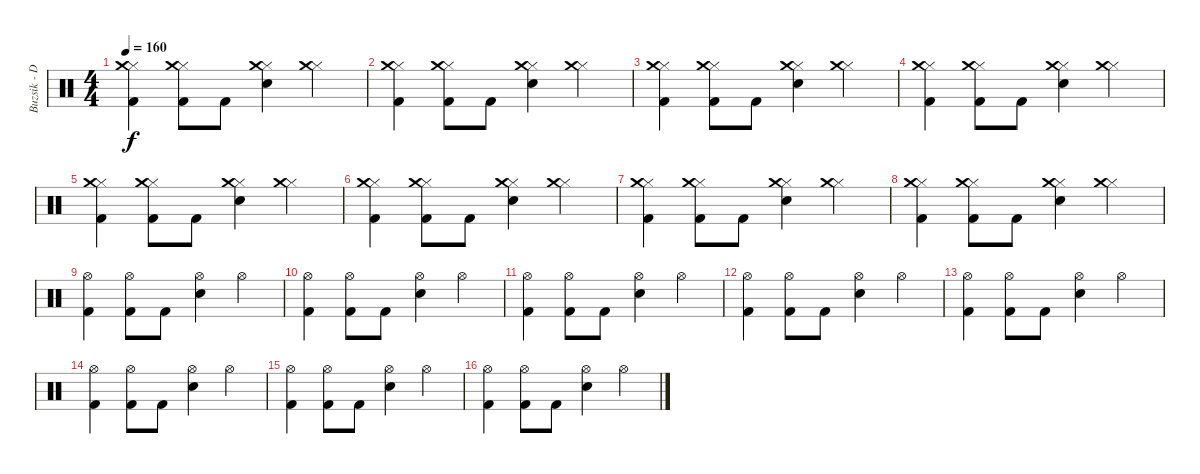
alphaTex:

\track ("Buzsik - Dob" "Buzsik - D") {instrument percussion}
\staff {score}
\articulation defaults
\ts (4 4)
\tempo 160
\clef neutral
\ks c
("Hi-Hat (closed)" "Crash medium (hit)" "Kick (hit) 2").4{dy f} ("Hi-Hat (closed)" "Crash medium (hit)" "Kick (hit) 2").8 "Kick (hit) 2".8 ("Hi-Hat (closed)" "Crash medium (hit)" "Electric Snare (hit)").4 ("Hi-Hat (closed)" "Crash medium (hit)").4 |
("Hi-Hat (closed)" "Crash medium (hit)" "Kick (hit) 2").4 ("Hi-Hat (closed)" "Crash medium (hit)" "Kick (hit) 2").8 "Kick (hit) 2".8 ("Hi-Hat (closed)" "Crash medium (hit)" "Electric Snare (hit)").4 ("Hi-Hat (closed)" "Crash medium (hit)").4 |
("Hi-Hat (closed)" "Crash medium (hit)" "Kick (hit) 2").4 ("Hi-Hat (closed)" "Crash medium (hit)" "Kick (hit) 2").8 "Kick (hit) 2".8 ("Hi-Hat (closed)" "Crash medium (hit)" "Electric Snare (hit)").4 ("Hi-Hat (closed)" "Crash medium (hit)").4 |
("Hi-Hat (closed)" "Crash medium (hit)" "Kick (hit) 2").4 ("Hi-Hat (closed)" "Crash medium (hit)" "Kick (hit) 2").8 "Kick (hit) 2".8 ("Hi-Hat (closed)" "Crash medium (hit)" "Electric Snare (hit)").4 ("Hi-Hat (closed)" "Crash medium (hit)").4 |
("Hi-Hat (closed)" "Crash medium (hit)" "Kick (hit) 2").4 ("Hi-Hat (closed)" "Crash medium (hit)" "Kick (hit) 2").8 "Kick (hit) 2".8 ("Hi-Hat (closed)" "Crash medium (hit)" "Electric Snare (hit)").4 ("Hi-Hat (closed)" "Crash medium (hit)").4 |
("Hi-Hat (closed)" "Crash medium (hit)" "Kick (hit) 2").4 ("Hi-Hat (closed)" "Crash medium (hit)" "Kick (hit) 2").8 "Kick (hit) 2".8 ("Hi-Hat (closed)" "Crash medium (hit)" "Electric Snare (hit)").4 ("Hi-Hat (closed)" "Crash medium (hit)").4 |
("Hi-Hat (closed)" "Crash medium (hit)" "Kick (hit) 2").4 ("Hi-Hat (closed)" "Crash medium (hit)" "Kick (hit) 2").8 "Kick (hit) 2".8 ("Hi-Hat (closed)" "Crash medium (hit)" "Electric Snare (hit)").4 ("Hi-Hat (closed)" "Crash medium (hit)").4 |
("Hi-Hat (closed)" "Crash medium (hit)" "Kick (hit) 2").4 ("Hi-Hat (closed)" "Crash medium (hit)" "Kick (hit) 2").8 "Kick (hit) 2".8 ("Hi-Hat (closed)" "Crash medium (hit)" "Electric Snare (hit)").4 ("Hi-Hat (closed)" "Crash medium (hit)").4 |
("Hi-Hat (open)" "Kick (hit) 2").4 ("Hi-Hat (open)" "Kick (hit) 2").8 "Kick (hit) 2".8 ("Hi-Hat (open)" "Electric Snare (hit)").4 "Hi-Hat (open)".4 |
("Hi-Hat (open)" "Kick (hit) 2").4 ("Hi-Hat (open)" "Kick (hit) 2").8 "Kick (hit) 2".8 ("Hi-Hat (open)" "Electric Snare (hit)").4 "Hi-Hat (open)".4 |
("Hi-Hat (open)" "Kick (hit) 2").4 ("Hi-Hat (open)" "Kick (hit) 2").8 "Kick (hit) 2".8 ("Hi-Hat (open)" "Electric Snare (hit)").4 "Hi-Hat (open)".4 |
("Hi-Hat (open)" "Kick (hit) 2").4 ("Hi-Hat (open)" "Kick (hit) 2").8 "Kick (hit) 2".8 ("Hi-Hat (open)" "Electric Snare (hit)").4 "Hi-Hat (open)".4 |
("Hi-Hat (open)" "Kick (hit) 2").4 ("Hi-Hat (open)" "Kick (hit) 2").8 "Kick (hit) 2".8 ("Hi-Hat (open)" "Electric Snare (hit)").4 "Hi-Hat (open)".4 |
("Hi-Hat (open)" "Kick (hit) 2").4 ("Hi-Hat (open)" "Kick (hit) 2").8 "Kick (hit) 2".8 ("Hi-Hat (open)" "Electric Snare (hit)").4 "Hi-Hat (open)".4 |
("Hi-Hat (open)" "Kick (hit) 2").4 ("Hi-Hat (open)" "Kick (hit) 2").8 "Kick (hit) 2".8 ("Hi-Hat (open)" "Electric Snare (hit)").4 "Hi-Hat (open)".4 |
("Hi-Hat (open)" "Kick (hit) 2").4 ("Hi-Hat (open)" "Kick (hit) 2").8 "Kick (hit) 2".8 ("Hi-Hat (open)" "Electric Snare (hit)").4 "Hi-Hat (open)".4
